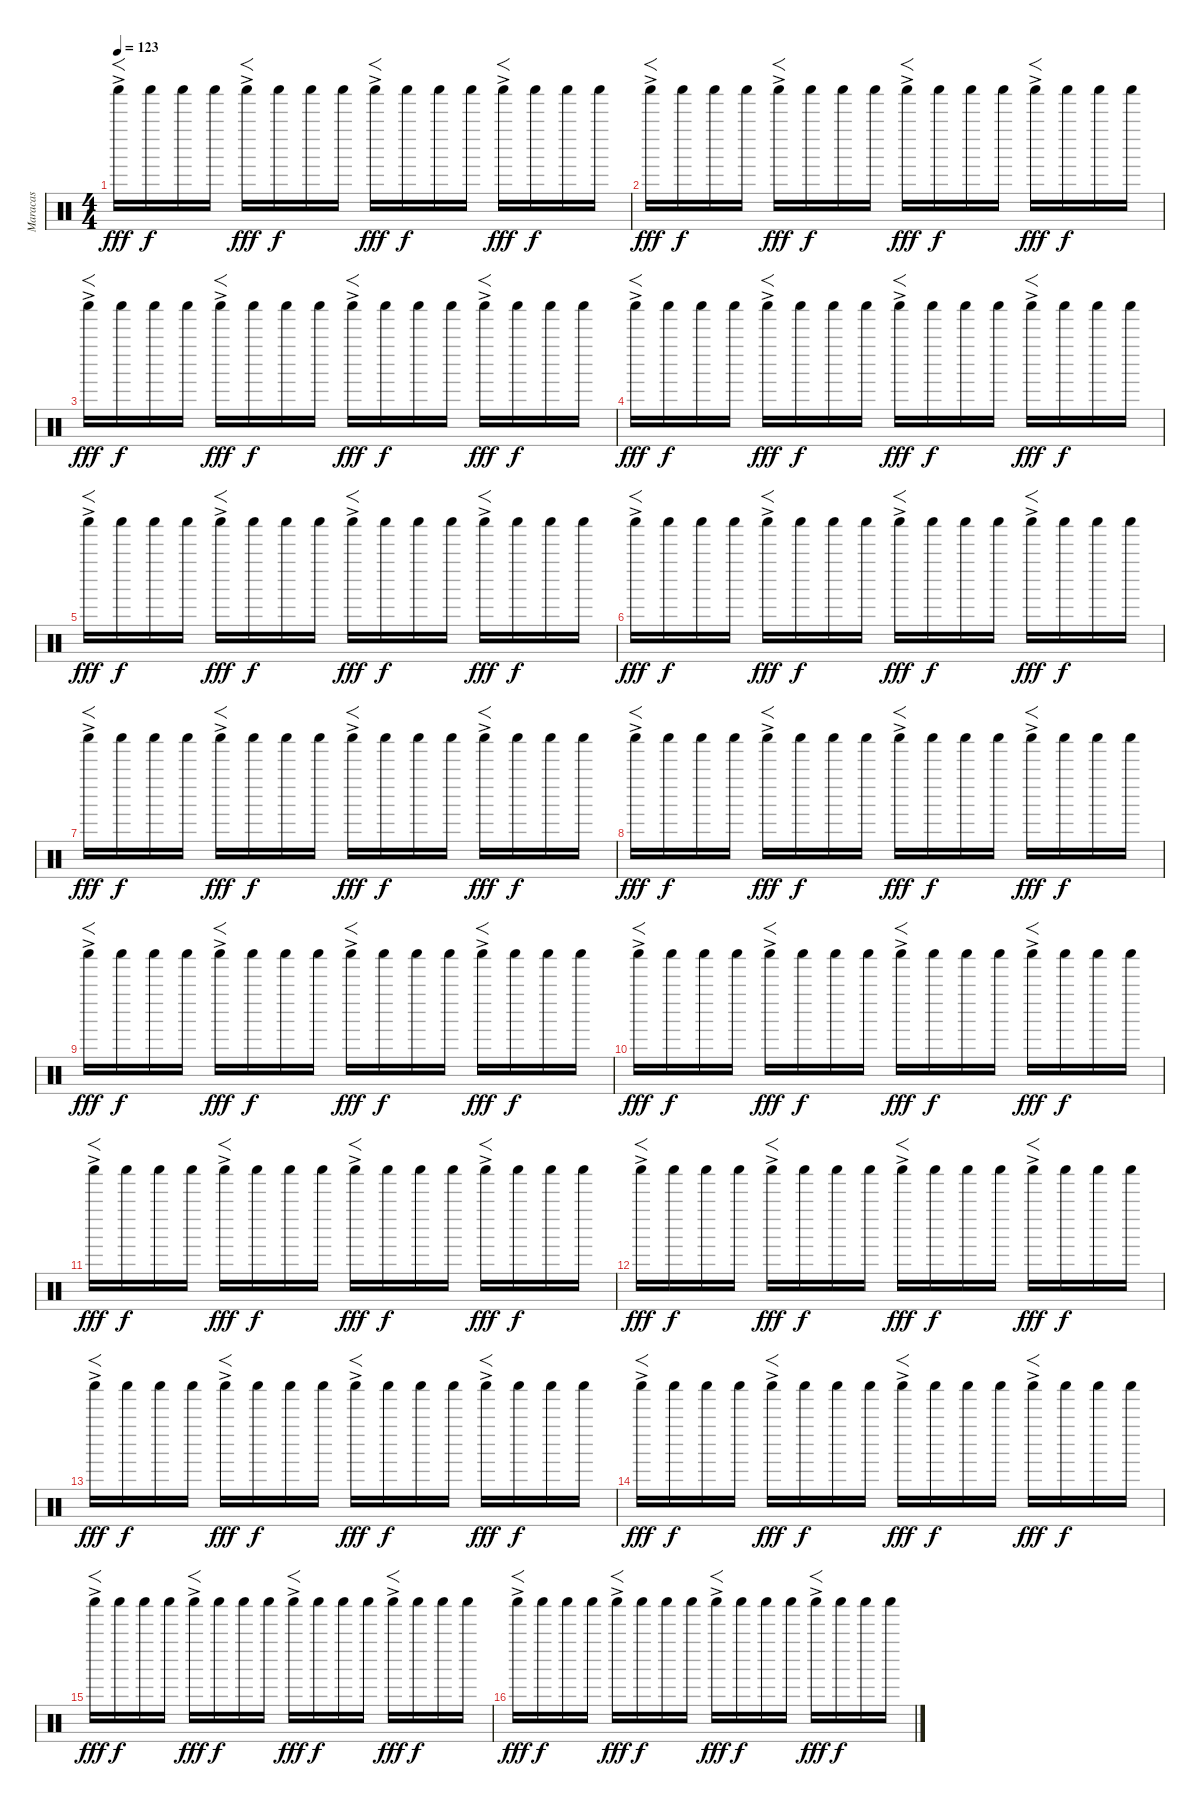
\track ("Maracas" "Maracas") {instrument percussion}
\staff {score}
\articulation defaults
\ts (4 4)
\tempo 123
\clef neutral
\ks c "Shaker (hit)"{ac}.16{f dy fff} "Shaker (hit)".16{dy f} "Shaker (hit)".16 "Shaker (hit)".16 "Shaker (hit)"{ac}.16{f dy fff} "Shaker (hit)".16{dy f} "Shaker (hit)".16 "Shaker (hit)".16 "Shaker (hit)"{ac}.16{f dy fff} "Shaker (hit)".16{dy f} "Shaker (hit)".16 "Shaker (hit)".16 "Shaker (hit)"{ac}.16{f dy fff} "Shaker (hit)".16{dy f} "Shaker (hit)".16 "Shaker (hit)".16
|
"Shaker (hit)"{ac}.16{f dy fff} "Shaker (hit)".16{dy f} "Shaker (hit)".16 "Shaker (hit)".16 "Shaker (hit)"{ac}.16{f dy fff} "Shaker (hit)".16{dy f} "Shaker (hit)".16 "Shaker (hit)".16 "Shaker (hit)"{ac}.16{f dy fff} "Shaker (hit)".16{dy f} "Shaker (hit)".16 "Shaker (hit)".16 "Shaker (hit)"{ac}.16{f dy fff} "Shaker (hit)".16{dy f} "Shaker (hit)".16 "Shaker (hit)".16 |
"Shaker (hit)"{ac}.16{f dy fff} "Shaker (hit)".16{dy f} "Shaker (hit)".16 "Shaker (hit)".16 "Shaker (hit)"{ac}.16{f dy fff} "Shaker (hit)".16{dy f} "Shaker (hit)".16 "Shaker (hit)".16 "Shaker (hit)"{ac}.16{f dy fff} "Shaker (hit)".16{dy f} "Shaker (hit)".16 "Shaker (hit)".16 "Shaker (hit)"{ac}.16{f dy fff} "Shaker (hit)".16{dy f} "Shaker (hit)".16 "Shaker (hit)".16 |
"Shaker (hit)"{ac}.16{f dy fff} "Shaker (hit)".16{dy f} "Shaker (hit)".16 "Shaker (hit)".16 "Shaker (hit)"{ac}.16{f dy fff} "Shaker (hit)".16{dy f} "Shaker (hit)".16 "Shaker (hit)".16 "Shaker (hit)"{ac}.16{f dy fff} "Shaker (hit)".16{dy f} "Shaker (hit)".16 "Shaker (hit)".16 "Shaker (hit)"{ac}.16{f dy fff} "Shaker (hit)".16{dy f} "Shaker (hit)".16 "Shaker (hit)".16 |
"Shaker (hit)"{ac}.16{f dy fff} "Shaker (hit)".16{dy f} "Shaker (hit)".16 "Shaker (hit)".16 "Shaker (hit)"{ac}.16{f dy fff} "Shaker (hit)".16{dy f} "Shaker (hit)".16 "Shaker (hit)".16 "Shaker (hit)"{ac}.16{f dy fff} "Shaker (hit)".16{dy f} "Shaker (hit)".16 "Shaker (hit)".16 "Shaker (hit)"{ac}.16{f dy fff} "Shaker (hit)".16{dy f} "Shaker (hit)".16 "Shaker (hit)".16 |
"Shaker (hit)"{ac}.16{f dy fff} "Shaker (hit)".16{dy f} "Shaker (hit)".16 "Shaker (hit)".16 "Shaker (hit)"{ac}.16{f dy fff} "Shaker (hit)".16{dy f} "Shaker (hit)".16 "Shaker (hit)".16 "Shaker (hit)"{ac}.16{f dy fff} "Shaker (hit)".16{dy f} "Shaker (hit)".16 "Shaker (hit)".16 "Shaker (hit)"{ac}.16{f dy fff} "Shaker (hit)".16{dy f} "Shaker (hit)".16 "Shaker (hit)".16 |
"Shaker (hit)"{ac}.16{f dy fff} "Shaker (hit)".16{dy f} "Shaker (hit)".16 "Shaker (hit)".16 "Shaker (hit)"{ac}.16{f dy fff} "Shaker (hit)".16{dy f} "Shaker (hit)".16 "Shaker (hit)".16 "Shaker (hit)"{ac}.16{f dy fff} "Shaker (hit)".16{dy f} "Shaker (hit)".16 "Shaker (hit)".16 "Shaker (hit)"{ac}.16{f dy fff} "Shaker (hit)".16{dy f} "Shaker (hit)".16 "Shaker (hit)".16 |
"Shaker (hit)"{ac}.16{f dy fff} "Shaker (hit)".16{dy f} "Shaker (hit)".16 "Shaker (hit)".16 "Shaker (hit)"{ac}.16{f dy fff} "Shaker (hit)".16{dy f} "Shaker (hit)".16 "Shaker (hit)".16 "Shaker (hit)"{ac}.16{f dy fff} "Shaker (hit)".16{dy f} "Shaker (hit)".16 "Shaker (hit)".16 "Shaker (hit)"{ac}.16{f dy fff} "Shaker (hit)".16{dy f} "Shaker (hit)".16 "Shaker (hit)".16 |
"Shaker (hit)"{ac}.16{f dy fff} "Shaker (hit)".16{dy f} "Shaker (hit)".16 "Shaker (hit)".16 "Shaker (hit)"{ac}.16{f dy fff} "Shaker (hit)".16{dy f} "Shaker (hit)".16 "Shaker (hit)".16 "Shaker (hit)"{ac}.16{f dy fff} "Shaker (hit)".16{dy f} "Shaker (hit)".16 "Shaker (hit)".16 "Shaker (hit)"{ac}.16{f dy fff} "Shaker (hit)".16{dy f} "Shaker (hit)".16 "Shaker (hit)".16 |
"Shaker (hit)"{ac}.16{f dy fff} "Shaker (hit)".16{dy f} "Shaker (hit)".16 "Shaker (hit)".16 "Shaker (hit)"{ac}.16{f dy fff} "Shaker (hit)".16{dy f} "Shaker (hit)".16 "Shaker (hit)".16 "Shaker (hit)"{ac}.16{f dy fff} "Shaker (hit)".16{dy f} "Shaker (hit)".16 "Shaker (hit)".16 "Shaker (hit)"{ac}.16{f dy fff} "Shaker (hit)".16{dy f} "Shaker (hit)".16 "Shaker (hit)".16 |
"Shaker (hit)"{ac}.16{f dy fff} "Shaker (hit)".16{dy f} "Shaker (hit)".16 "Shaker (hit)".16 "Shaker (hit)"{ac}.16{f dy fff} "Shaker (hit)".16{dy f} "Shaker (hit)".16 "Shaker (hit)".16 "Shaker (hit)"{ac}.16{f dy fff} "Shaker (hit)".16{dy f} "Shaker (hit)".16 "Shaker (hit)".16 "Shaker (hit)"{ac}.16{f dy fff} "Shaker (hit)".16{dy f} "Shaker (hit)".16 "Shaker (hit)".16 |
"Shaker (hit)"{ac}.16{f dy fff} "Shaker (hit)".16{dy f} "Shaker (hit)".16 "Shaker (hit)".16 "Shaker (hit)"{ac}.16{f dy fff} "Shaker (hit)".16{dy f} "Shaker (hit)".16 "Shaker (hit)".16 "Shaker (hit)"{ac}.16{f dy fff} "Shaker (hit)".16{dy f} "Shaker (hit)".16 "Shaker (hit)".16 "Shaker (hit)"{ac}.16{f dy fff} "Shaker (hit)".16{dy f} "Shaker (hit)".16 "Shaker (hit)".16 |
"Shaker (hit)"{ac}.16{f dy fff} "Shaker (hit)".16{dy f} "Shaker (hit)".16 "Shaker (hit)".16 "Shaker (hit)"{ac}.16{f dy fff} "Shaker (hit)".16{dy f} "Shaker (hit)".16 "Shaker (hit)".16 "Shaker (hit)"{ac}.16{f dy fff} "Shaker (hit)".16{dy f} "Shaker (hit)".16 "Shaker (hit)".16 "Shaker (hit)"{ac}.16{f dy fff} "Shaker (hit)".16{dy f} "Shaker (hit)".16 "Shaker (hit)".16 |
"Shaker (hit)"{ac}.16{f dy fff} "Shaker (hit)".16{dy f} "Shaker (hit)".16 "Shaker (hit)".16 "Shaker (hit)"{ac}.16{f dy fff} "Shaker (hit)".16{dy f} "Shaker (hit)".16 "Shaker (hit)".16 "Shaker (hit)"{ac}.16{f dy fff} "Shaker (hit)".16{dy f} "Shaker (hit)".16 "Shaker (hit)".16 "Shaker (hit)"{ac}.16{f dy fff} "Shaker (hit)".16{dy f} "Shaker (hit)".16 "Shaker (hit)".16 |
"Shaker (hit)"{ac}.16{f dy fff} "Shaker (hit)".16{dy f} "Shaker (hit)".16 "Shaker (hit)".16 "Shaker (hit)"{ac}.16{f dy fff} "Shaker (hit)".16{dy f} "Shaker (hit)".16 "Shaker (hit)".16 "Shaker (hit)"{ac}.16{f dy fff} "Shaker (hit)".16{dy f} "Shaker (hit)".16 "Shaker (hit)".16 "Shaker (hit)"{ac}.16{f dy fff} "Shaker (hit)".16{dy f} "Shaker (hit)".16 "Shaker (hit)".16 |
"Shaker (hit)"{ac}.16{f dy fff} "Shaker (hit)".16{dy f} "Shaker (hit)".16 "Shaker (hit)".16 "Shaker (hit)"{ac}.16{f dy fff} "Shaker (hit)".16{dy f} "Shaker (hit)".16 "Shaker (hit)".16 "Shaker (hit)"{ac}.16{f dy fff} "Shaker (hit)".16{dy f} "Shaker (hit)".16 "Shaker (hit)".16 "Shaker (hit)"{ac}.16{f dy fff} "Shaker (hit)".16{dy f} "Shaker (hit)".16 "Shaker (hit)".16
